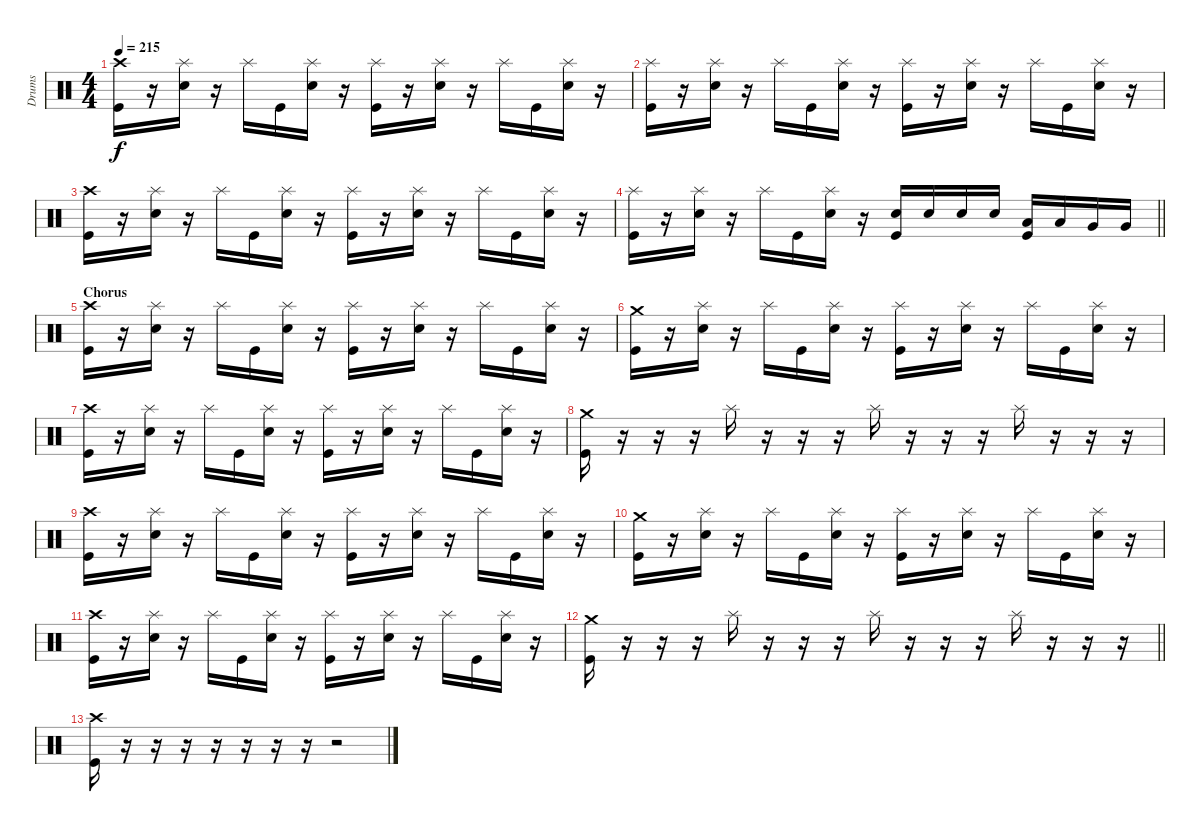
\track ("Drums" "Drums") {instrument percussion}
\staff {score}
\articulation defaults
\ts (4 4)
\tempo 215
\clef neutral
\ks c
("Crash high (hit)" "Kick (hit)").16{dy f} r.16 ("Splash (hit)" "Electric Snare (hit)").16 r.16 "Splash (hit)".16 "Kick (hit)".16 ("Splash (hit)" "Electric Snare (hit)").16 r.16 ("Splash (hit)" "Kick (hit)").16 r.16 ("Splash (hit)" "Electric Snare (hit)").16 r.16 "Splash (hit)".16 "Kick (hit)".16 ("Splash (hit)" "Electric Snare (hit)").16 r.16 |
("Splash (hit)" "Kick (hit)").16 r.16 ("Splash (hit)" "Electric Snare (hit)").16 r.16 "Splash (hit)".16 "Kick (hit)".16 ("Splash (hit)" "Electric Snare (hit)").16 r.16 ("Splash (hit)" "Kick (hit)").16 r.16 ("Splash (hit)" "Electric Snare (hit)").16 r.16 "Splash (hit)".16 "Kick (hit)".16 ("Splash (hit)" "Electric Snare (hit)").16 r.16 |
("Crash high (hit)" "Kick (hit)").16 r.16 ("Splash (hit)" "Electric Snare (hit)").16 r.16 "Splash (hit)".16 "Kick (hit)".16 ("Splash (hit)" "Electric Snare (hit)").16 r.16 ("Splash (hit)" "Kick (hit)").16 r.16 ("Splash (hit)" "Electric Snare (hit)").16 r.16 "Splash (hit)".16 "Kick (hit)".16 ("Splash (hit)" "Electric Snare (hit)").16 r.16 |
\barLineRight lightlight
("Splash (hit)" "Kick (hit)").16 r.16 ("Splash (hit)" "Electric Snare (hit)").16 r.16 "Splash (hit)".16 "Kick (hit)".16 ("Splash (hit)" "Electric Snare (hit)").16 r.16 ("Electric Snare (hit)" "Kick (hit)").16 "Electric Snare (hit)".16 "Electric Snare (hit)".16 "Electric Snare (hit)".16 ("Low Tom (hit)" "Kick (hit)").16 "Low Tom (hit)".16 "Very Low Tom (hit)".16 "Very Low Tom (hit)".16 |
\section ("" "Chorus")
("Crash high (hit)" "Kick (hit)").16 r.16 ("Splash (hit)" "Electric Snare (hit)").16 r.16 "Splash (hit)".16 "Kick (hit)".16 ("Splash (hit)" "Electric Snare (hit)").16 r.16 ("Splash (hit)" "Kick (hit)").16 r.16 ("Splash (hit)" "Electric Snare (hit)").16 r.16 "Splash (hit)".16 "Kick (hit)".16 ("Splash (hit)" "Electric Snare (hit)").16 r.16 |
("Crash medium (hit)" "Kick (hit)").16 r.16 ("Splash (hit)" "Electric Snare (hit)").16 r.16 "Splash (hit)".16 "Kick (hit)".16 ("Splash (hit)" "Electric Snare (hit)").16 r.16 ("Splash (hit)" "Kick (hit)").16 r.16 ("Splash (hit)" "Electric Snare (hit)").16 r.16 "Splash (hit)".16 "Kick (hit)".16 ("Splash (hit)" "Electric Snare (hit)").16 r.16 |
("Crash high (hit)" "Kick (hit)").16 r.16 ("Splash (hit)" "Electric Snare (hit)").16 r.16 "Splash (hit)".16 "Kick (hit)".16 ("Splash (hit)" "Electric Snare (hit)").16 r.16 ("Splash (hit)" "Kick (hit)").16 r.16 ("Splash (hit)" "Electric Snare (hit)").16 r.16 "Splash (hit)".16 "Kick (hit)".16 ("Splash (hit)" "Electric Snare (hit)").16 r.16 |
("Crash medium (hit)" "Kick (hit)").16 r.16 r.16 r.16 "Splash (hit)".16 r.16 r.16 r.16 "Splash (hit)".16 r.16 r.16 r.16 "Splash (hit)".16 r.16 r.16 r.16 |
("Crash high (hit)" "Kick (hit)").16 r.16 ("Splash (hit)" "Electric Snare (hit)").16 r.16 "Splash (hit)".16 "Kick (hit)".16 ("Splash (hit)" "Electric Snare (hit)").16 r.16 ("Splash (hit)" "Kick (hit)").16 r.16 ("Splash (hit)" "Electric Snare (hit)").16 r.16 "Splash (hit)".16 "Kick (hit)".16 ("Splash (hit)" "Electric Snare (hit)").16 r.16 |
("Crash medium (hit)" "Kick (hit)").16 r.16 ("Splash (hit)" "Electric Snare (hit)").16 r.16 "Splash (hit)".16 "Kick (hit)".16 ("Splash (hit)" "Electric Snare (hit)").16 r.16 ("Splash (hit)" "Kick (hit)").16 r.16 ("Splash (hit)" "Electric Snare (hit)").16 r.16 "Splash (hit)".16 "Kick (hit)".16 ("Splash (hit)" "Electric Snare (hit)").16 r.16 |
("Crash high (hit)" "Kick (hit)").16 r.16 ("Splash (hit)" "Electric Snare (hit)").16 r.16 "Splash (hit)".16 "Kick (hit)".16 ("Splash (hit)" "Electric Snare (hit)").16 r.16 ("Splash (hit)" "Kick (hit)").16 r.16 ("Splash (hit)" "Electric Snare (hit)").16 r.16 "Splash (hit)".16 "Kick (hit)".16 ("Splash (hit)" "Electric Snare (hit)").16 r.16 |
\barLineRight lightlight
("Crash medium (hit)" "Kick (hit)").16 r.16 r.16 r.16 "Splash (hit)".16 r.16 r.16 r.16 "Splash (hit)".16 r.16 r.16 r.16 "Splash (hit)".16 r.16 r.16 r.16 |
("Crash high (hit)" "Kick (hit)").16 r.16 r.16 r.16 r.16 r.16 r.16 r.16 r.2
